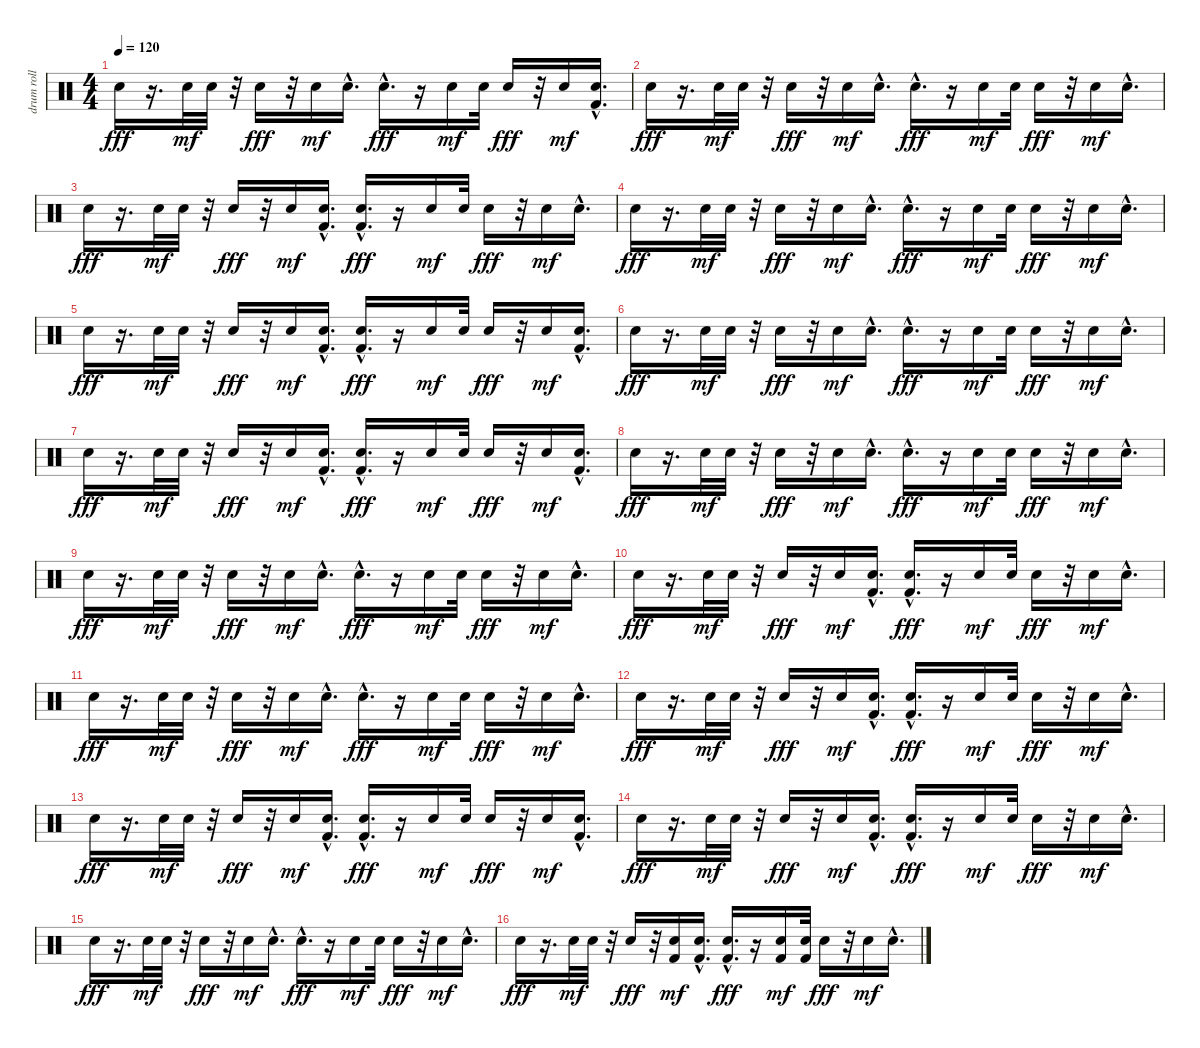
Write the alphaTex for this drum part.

\track ("drum roll" "drum roll") {instrument percussion}
\staff {score}
\articulation defaults
\ts (4 4)
\tempo 120
\clef neutral
\ks c "Electric Snare (hit)".16{dy fff}
r.16{d} "Electric Snare (hit)".32{dy mf} "Electric Snare (hit)".32 r.32 "Electric Snare (hit)".16{dy fff} r.32 "Electric Snare (hit)".16{dy mf} "Electric Snare (hit)"{hac}.16{d} "Electric Snare (hit)"{hac}.16{d dy fff} r.16 "Electric Snare (hit)".16{dy mf} "Electric Snare (hit)".32 "Electric Snare (hit)".16{dy fff} r.32 "Electric Snare (hit)".16{dy mf} ("Electric Snare (hit)"{hac} "Kick (hit) 2"{hac}).16{d} |
"Electric Snare (hit)".16{dy fff} r.16{d} "Electric Snare (hit)".32{dy mf} "Electric Snare (hit)".32 r.32 "Electric Snare (hit)".16{dy fff} r.32 "Electric Snare (hit)".16{dy mf} "Electric Snare (hit)"{hac}.16{d} "Electric Snare (hit)"{hac}.16{d dy fff} r.16 "Electric Snare (hit)".16{dy mf} "Electric Snare (hit)".32 "Electric Snare (hit)".16{dy fff} r.32 "Electric Snare (hit)".16{dy mf} "Electric Snare (hit)"{hac}.16{d} |
"Electric Snare (hit)".16{dy fff} r.16{d} "Electric Snare (hit)".32{dy mf} "Electric Snare (hit)".32 r.32 "Electric Snare (hit)".16{dy fff} r.32 "Electric Snare (hit)".16{dy mf} ("Electric Snare (hit)"{hac} "Kick (hit) 2"{hac}).16{d} ("Electric Snare (hit)"{hac} "Kick (hit) 2"{hac}).16{d dy fff} r.16 "Electric Snare (hit)".16{dy mf} "Electric Snare (hit)".32 "Electric Snare (hit)".16{dy fff} r.32 "Electric Snare (hit)".16{dy mf} "Electric Snare (hit)"{hac}.16{d} |
"Electric Snare (hit)".16{dy fff} r.16{d} "Electric Snare (hit)".32{dy mf} "Electric Snare (hit)".32 r.32 "Electric Snare (hit)".16{dy fff} r.32 "Electric Snare (hit)".16{dy mf} "Electric Snare (hit)"{hac}.16{d} "Electric Snare (hit)"{hac}.16{d dy fff} r.16 "Electric Snare (hit)".16{dy mf} "Electric Snare (hit)".32 "Electric Snare (hit)".16{dy fff} r.32 "Electric Snare (hit)".16{dy mf} "Electric Snare (hit)"{hac}.16{d} |
"Electric Snare (hit)".16{dy fff} r.16{d} "Electric Snare (hit)".32{dy mf} "Electric Snare (hit)".32 r.32 "Electric Snare (hit)".16{dy fff} r.32 "Electric Snare (hit)".16{dy mf} ("Electric Snare (hit)"{hac} "Kick (hit) 2"{hac}).16{d} ("Electric Snare (hit)"{hac} "Kick (hit) 2"{hac}).16{d dy fff} r.16 "Electric Snare (hit)".16{dy mf} "Electric Snare (hit)".32 "Electric Snare (hit)".16{dy fff} r.32 "Electric Snare (hit)".16{dy mf} ("Electric Snare (hit)"{hac} "Kick (hit) 2"{hac}).16{d} |
"Electric Snare (hit)".16{dy fff} r.16{d} "Electric Snare (hit)".32{dy mf} "Electric Snare (hit)".32 r.32 "Electric Snare (hit)".16{dy fff} r.32 "Electric Snare (hit)".16{dy mf} "Electric Snare (hit)"{hac}.16{d} "Electric Snare (hit)"{hac}.16{d dy fff} r.16 "Electric Snare (hit)".16{dy mf} "Electric Snare (hit)".32 "Electric Snare (hit)".16{dy fff} r.32 "Electric Snare (hit)".16{dy mf} "Electric Snare (hit)"{hac}.16{d} |
"Electric Snare (hit)".16{dy fff} r.16{d} "Electric Snare (hit)".32{dy mf} "Electric Snare (hit)".32 r.32 "Electric Snare (hit)".16{dy fff} r.32 "Electric Snare (hit)".16{dy mf} ("Electric Snare (hit)"{hac} "Kick (hit) 2"{hac}).16{d} ("Electric Snare (hit)"{hac} "Kick (hit) 2"{hac}).16{d dy fff} r.16 "Electric Snare (hit)".16{dy mf} "Electric Snare (hit)".32 "Electric Snare (hit)".16{dy fff} r.32 "Electric Snare (hit)".16{dy mf} ("Electric Snare (hit)"{hac} "Kick (hit) 2"{hac}).16{d} |
"Electric Snare (hit)".16{dy fff} r.16{d} "Electric Snare (hit)".32{dy mf} "Electric Snare (hit)".32 r.32 "Electric Snare (hit)".16{dy fff} r.32 "Electric Snare (hit)".16{dy mf} "Electric Snare (hit)"{hac}.16{d} "Electric Snare (hit)"{hac}.16{d dy fff} r.16 "Electric Snare (hit)".16{dy mf} "Electric Snare (hit)".32 "Electric Snare (hit)".16{dy fff} r.32 "Electric Snare (hit)".16{dy mf} "Electric Snare (hit)"{hac}.16{d} |
"Electric Snare (hit)".16{dy fff} r.16{d} "Electric Snare (hit)".32{dy mf} "Electric Snare (hit)".32 r.32 "Electric Snare (hit)".16{dy fff} r.32 "Electric Snare (hit)".16{dy mf} "Electric Snare (hit)"{hac}.16{d} "Electric Snare (hit)"{hac}.16{d dy fff} r.16 "Electric Snare (hit)".16{dy mf} "Electric Snare (hit)".32 "Electric Snare (hit)".16{dy fff} r.32 "Electric Snare (hit)".16{dy mf} "Electric Snare (hit)"{hac}.16{d} |
"Electric Snare (hit)".16{dy fff} r.16{d} "Electric Snare (hit)".32{dy mf} "Electric Snare (hit)".32 r.32 "Electric Snare (hit)".16{dy fff} r.32 "Electric Snare (hit)".16{dy mf} ("Electric Snare (hit)"{hac} "Kick (hit) 2"{hac}).16{d} ("Electric Snare (hit)"{hac} "Kick (hit) 2"{hac}).16{d dy fff} r.16 "Electric Snare (hit)".16{dy mf} "Electric Snare (hit)".32 "Electric Snare (hit)".16{dy fff} r.32 "Electric Snare (hit)".16{dy mf} "Electric Snare (hit)"{hac}.16{d} |
"Electric Snare (hit)".16{dy fff} r.16{d} "Electric Snare (hit)".32{dy mf} "Electric Snare (hit)".32 r.32 "Electric Snare (hit)".16{dy fff} r.32 "Electric Snare (hit)".16{dy mf} "Electric Snare (hit)"{hac}.16{d} "Electric Snare (hit)"{hac}.16{d dy fff} r.16 "Electric Snare (hit)".16{dy mf} "Electric Snare (hit)".32 "Electric Snare (hit)".16{dy fff} r.32 "Electric Snare (hit)".16{dy mf} "Electric Snare (hit)"{hac}.16{d} |
"Electric Snare (hit)".16{dy fff} r.16{d} "Electric Snare (hit)".32{dy mf} "Electric Snare (hit)".32 r.32 "Electric Snare (hit)".16{dy fff} r.32 "Electric Snare (hit)".16{dy mf} ("Electric Snare (hit)"{hac} "Kick (hit) 2"{hac}).16{d} ("Electric Snare (hit)"{hac} "Kick (hit) 2"{hac}).16{d dy fff} r.16 "Electric Snare (hit)".16{dy mf} "Electric Snare (hit)".32 "Electric Snare (hit)".16{dy fff} r.32 "Electric Snare (hit)".16{dy mf} "Electric Snare (hit)"{hac}.16{d} |
"Electric Snare (hit)".16{dy fff} r.16{d} "Electric Snare (hit)".32{dy mf} "Electric Snare (hit)".32 r.32 "Electric Snare (hit)".16{dy fff} r.32 "Electric Snare (hit)".16{dy mf} ("Electric Snare (hit)"{hac} "Kick (hit) 2"{hac}).16{d} ("Electric Snare (hit)"{hac} "Kick (hit) 2"{hac}).16{d dy fff} r.16 "Electric Snare (hit)".16{dy mf} "Electric Snare (hit)".32 "Electric Snare (hit)".16{dy fff} r.32 "Electric Snare (hit)".16{dy mf} ("Electric Snare (hit)"{hac} "Kick (hit) 2"{hac}).16{d} |
"Electric Snare (hit)".16{dy fff} r.16{d} "Electric Snare (hit)".32{dy mf} "Electric Snare (hit)".32 r.32 "Electric Snare (hit)".16{dy fff} r.32 "Electric Snare (hit)".16{dy mf} ("Electric Snare (hit)"{hac} "Kick (hit) 2"{hac}).16{d} ("Electric Snare (hit)"{hac} "Kick (hit) 2"{hac}).16{d dy fff} r.16 "Electric Snare (hit)".16{dy mf} "Electric Snare (hit)".32 "Electric Snare (hit)".16{dy fff} r.32 "Electric Snare (hit)".16{dy mf} "Electric Snare (hit)"{hac}.16{d} |
"Electric Snare (hit)".16{dy fff} r.16{d} "Electric Snare (hit)".32{dy mf} "Electric Snare (hit)".32 r.32 "Electric Snare (hit)".16{dy fff} r.32 "Electric Snare (hit)".16{dy mf} "Electric Snare (hit)"{hac}.16{d} "Electric Snare (hit)"{hac}.16{d dy fff} r.16 "Electric Snare (hit)".16{dy mf} "Electric Snare (hit)".32 "Electric Snare (hit)".16{dy fff} r.32 "Electric Snare (hit)".16{dy mf} "Electric Snare (hit)"{hac}.16{d} |
"Electric Snare (hit)".16{dy fff} r.16{d} "Electric Snare (hit)".32{dy mf} "Electric Snare (hit)".32 r.32 "Electric Snare (hit)".16{dy fff} r.32 ("Electric Snare (hit)" "Kick (hit) 2").16{dy mf} ("Electric Snare (hit)"{hac} "Kick (hit) 2"{hac}).16{d} ("Electric Snare (hit)"{hac} "Kick (hit) 2"{hac}).16{d dy fff} r.16 ("Electric Snare (hit)" "Kick (hit) 2").16{dy mf} ("Electric Snare (hit)" "Kick (hit) 2").32 "Electric Snare (hit)".16{dy fff} r.32 "Electric Snare (hit)".16{dy mf} "Electric Snare (hit)"{hac}.16{d}
